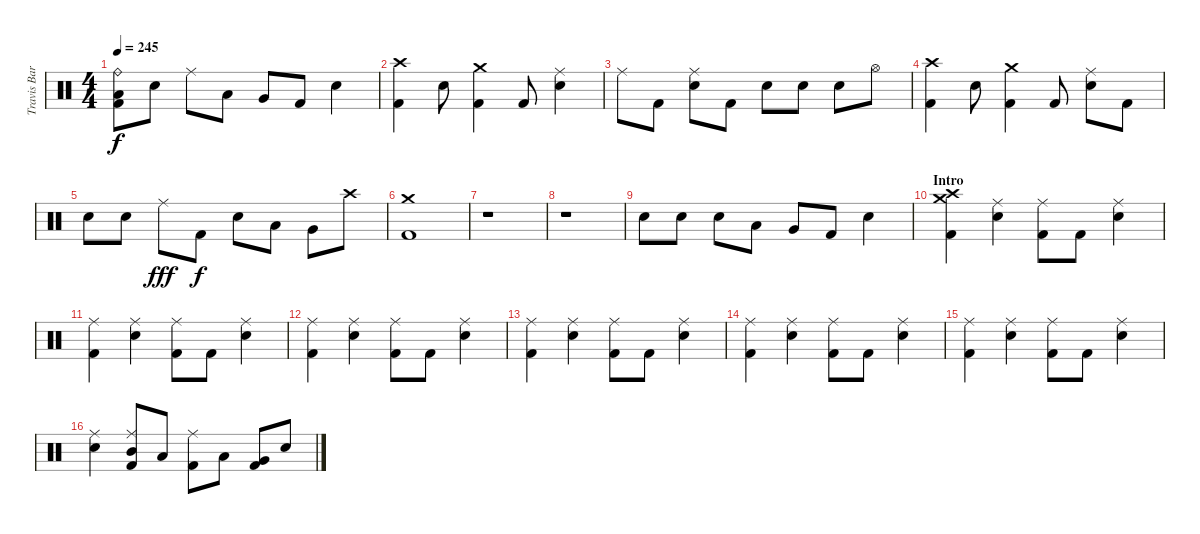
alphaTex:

\track ("Travis Barker - Batería" "Travis Bar") {instrument percussion}
\staff {score}
\articulation defaults
\ts (4 4)
\tempo 245
\clef neutral
\ks c
("Ride (bell)" "Low Floor Tom (hit)" "Kick (hit) 2").8{dy f} "Electric Snare (hit)".8 "Ride (middle)".8 "Low Tom (hit)".8 "Very Low Tom (hit)".8 "Kick (hit) 2".8 "Electric Snare (hit)".4 |
("Crash high (hit)" "Kick (hit) 2").4 "Electric Snare (hit)".8 ("Crash medium (hit)" "Kick (hit) 2").4 "Kick (hit) 2".8 ("Ride (middle)" "Electric Snare (hit)").4 |
"Ride (middle)".8 "Kick (hit) 2".8 ("Ride (middle)" "Electric Snare (hit)").8 "Kick (hit) 2".8 "Electric Snare (hit)".8 "Electric Snare (hit)".8 "Electric Snare (hit)".8 "Hi-Hat (open)".8 |
("Crash high (hit)" "Kick (hit) 2").4 "Electric Snare (hit)".8 ("Crash medium (hit)" "Kick (hit) 2").4 "Kick (hit) 2".8 ("Ride (middle)" "Electric Snare (hit)").8 "Kick (hit) 2".8 |
"Electric Snare (hit)".8 "Electric Snare (hit)".8 "Ride (middle)".8{dy fff} "Kick (hit) 2".8{dy f} "Electric Snare (hit)".8 "Low Tom (hit)".8 "Very Low Tom (hit)".8 "Crash high (hit)".8 |
("Crash medium (hit)" "Kick (hit) 2").1 |
r.1 |
r.1 |
"Electric Snare (hit)".8 "Electric Snare (hit)".8 "Electric Snare (hit)".8 "Low Tom (hit)".8 "Very Low Tom (hit)".8 "Kick (hit) 2".8 "Electric Snare (hit)".4 |
\section ("" "Intro")
("Crash medium (hit)" "Crash high (hit)" "Kick (hit) 2").4 ("Ride (middle)" "Electric Snare (hit)").4 ("Ride (middle)" "Kick (hit) 2").8 "Kick (hit) 2".8 ("Ride (middle)" "Electric Snare (hit)").4 |
("Ride (middle)" "Kick (hit) 2").4 ("Ride (middle)" "Electric Snare (hit)").4 ("Ride (middle)" "Kick (hit) 2").8 "Kick (hit) 2".8 ("Ride (middle)" "Electric Snare (hit)").4 |
("Ride (middle)" "Kick (hit) 2").4 ("Ride (middle)" "Electric Snare (hit)").4 ("Ride (middle)" "Kick (hit) 2").8 "Kick (hit) 2".8 ("Ride (middle)" "Electric Snare (hit)").4 |
("Ride (middle)" "Kick (hit) 2").4 ("Ride (middle)" "Electric Snare (hit)").4 ("Ride (middle)" "Kick (hit) 2").8 "Kick (hit) 2".8 ("Ride (middle)" "Electric Snare (hit)").4 |
("Ride (middle)" "Kick (hit) 2").4 ("Ride (middle)" "Electric Snare (hit)").4 ("Ride (middle)" "Kick (hit) 2").8 "Kick (hit) 2".8 ("Ride (middle)" "Electric Snare (hit)").4 |
("Ride (middle)" "Kick (hit) 2").4 ("Ride (middle)" "Electric Snare (hit)").4 ("Ride (middle)" "Kick (hit) 2").8 "Kick (hit) 2".8 ("Ride (middle)" "Electric Snare (hit)").4 |
("Ride (middle)" "Electric Snare (hit)").4 ("Ride (middle)" "Mid Tom (hit)" "Kick (hit) 2").8 "Low Tom (hit)".8 ("Ride (middle)" "Kick (hit) 2").8 "Low Tom (hit)".8 ("Very Low Tom (hit)" "Kick (hit) 2").8 "Electric Snare (hit)".8
